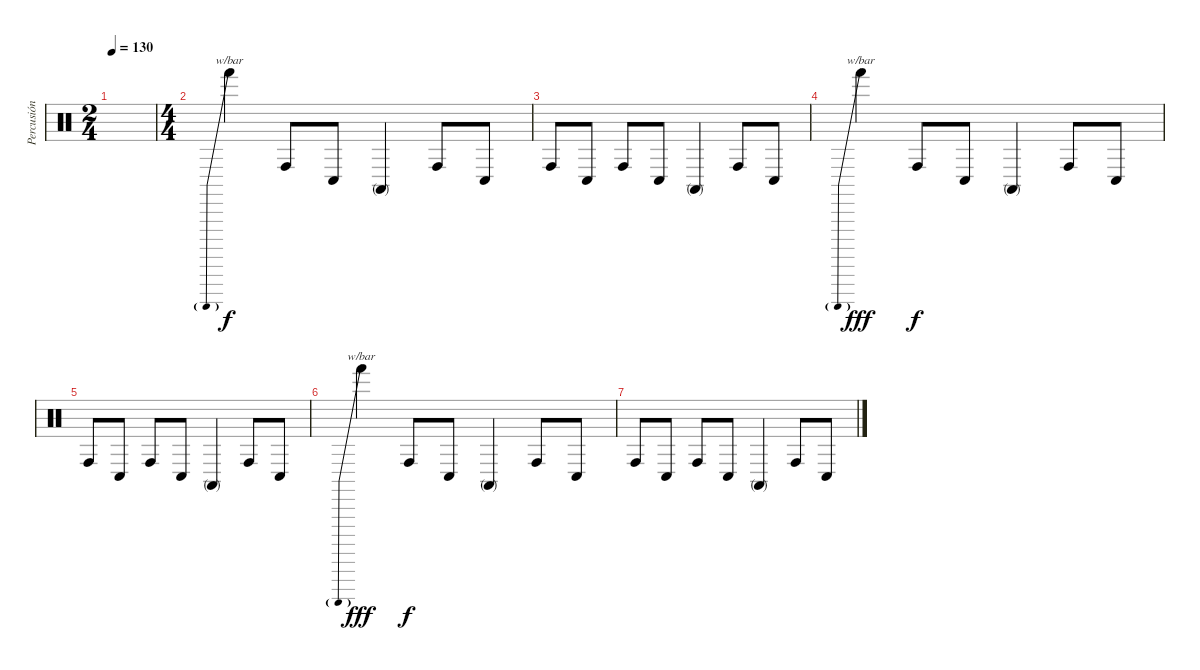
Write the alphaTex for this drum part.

\track ("Percusión" "Percusión") {instrument percussion}
\staff {score}
\articulation defaults
\ts (2 4)
\tempo 130
\clef neutral
\ks c
|
\ts (4 4)
"Hand (hit)".4{tbe (predive default 0 -8 60 -8)} "Conga high (hit)".8{dy f} "Conga low (hit)".8 "Conga high (mute)".4 "Conga high (hit)".8 "Conga low (hit)".8 |
"Conga high (hit)".8 "Conga low (hit)".8 "Conga high (hit)".8 "Conga low (hit)".8 "Conga high (mute)".4 "Conga high (hit)".8 "Conga low (hit)".8 |
"Hand (hit)".4{tbe (predive default 0 -8 60 -8) dy fff} "Conga high (hit)".8{dy f} "Conga low (hit)".8 "Conga high (mute)".4 "Conga high (hit)".8 "Conga low (hit)".8 |
"Conga high (hit)".8 "Conga low (hit)".8 "Conga high (hit)".8 "Conga low (hit)".8 "Conga high (mute)".4 "Conga high (hit)".8 "Conga low (hit)".8 |
"Hand (hit)".4{tbe (predive default 0 -8 60 -8) dy fff} "Conga high (hit)".8{dy f} "Conga low (hit)".8 "Conga high (mute)".4 "Conga high (hit)".8 "Conga low (hit)".8 |
"Conga high (hit)".8 "Conga low (hit)".8 "Conga high (hit)".8 "Conga low (hit)".8 "Conga high (mute)".4 "Conga high (hit)".8 "Conga low (hit)".8
